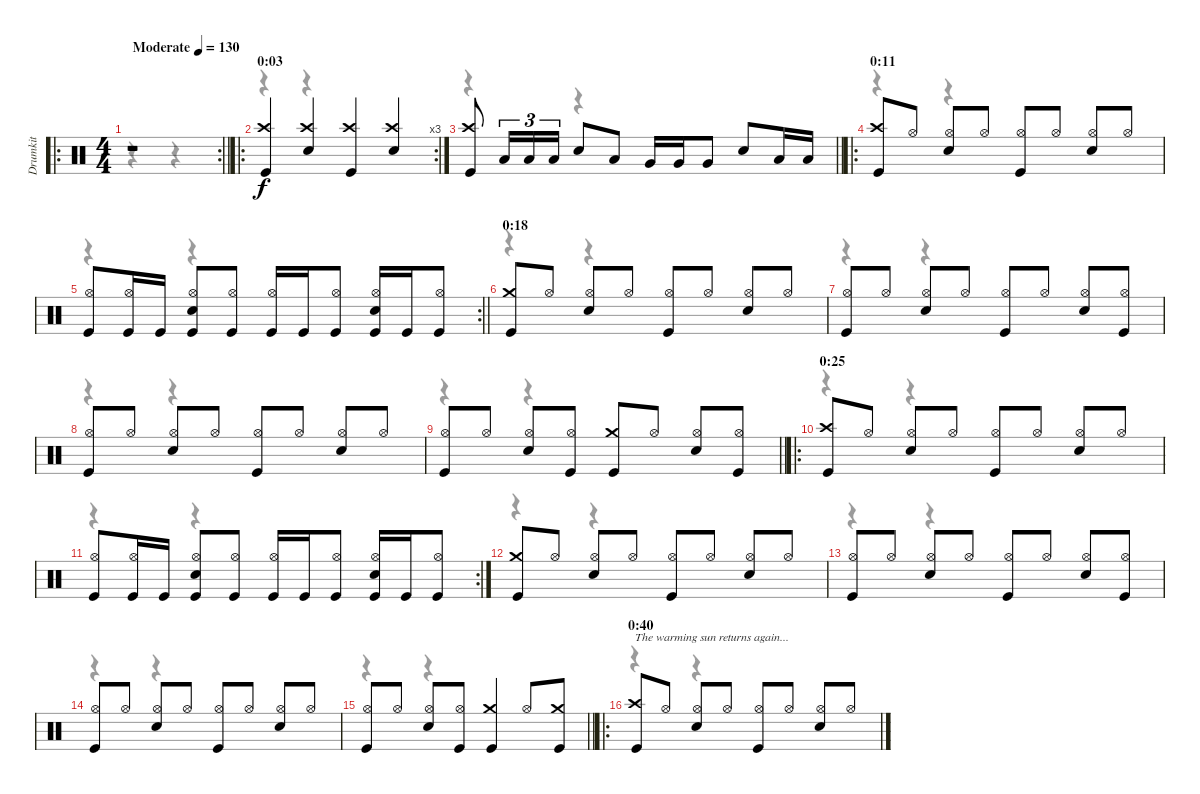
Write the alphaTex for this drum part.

\track ("Drumkit" "Drumkit") {instrument percussion}
\staff {score}
\articulation defaults
\voice
\ro
\rc 2
\ts (4 4)
\tempo (130 "Moderate")
\clef neutral
\barLineRight lightlight
\ks c
r.1{dy f} |
\ro
\rc 3
\section ("" "0:03")
("Crash high (hit)" "Kick (hit)").4 ("Crash high (hit)" "Snare (hit) 2").4 ("Crash high (hit)" "Kick (hit)").4 ("Crash high (hit)" "Snare (hit) 2").4 |
\barLineRight lightlight
("Crash high (hit)" "Kick (hit)").8 "Low Tom (hit)".16{tu (3 2)} "Low Tom (hit)".16{tu (3 2)} "Low Tom (hit)".16{tu (3 2)} "Snare (hit) 2".8 "Low Tom (hit)".8 "Very Low Tom (hit)".16 "Very Low Tom (hit)".16 "Very Low Tom (hit)".8 "Snare (hit) 2".8 "Low Tom (hit)".16 "Low Tom (hit)".16 |
\ro
\section ("" "0:11")
("Crash high (hit)" "Kick (hit)").8 "Hi-Hat (open)".8 ("Hi-Hat (open)" "Snare (hit) 2").8 "Hi-Hat (open)".8 ("Hi-Hat (open)" "Kick (hit)").8 "Hi-Hat (open)".8 ("Hi-Hat (open)" "Snare (hit) 2").8 "Hi-Hat (open)".8 |
\rc 2
\barLineRight lightlight
("Hi-Hat (open)" "Kick (hit)").8 ("Hi-Hat (open)" "Kick (hit)").16 "Kick (hit)".16 ("Hi-Hat (open)" "Snare (hit) 2" "Kick (hit)").8 ("Hi-Hat (open)" "Kick (hit)").8 ("Hi-Hat (open)" "Kick (hit)").16 "Kick (hit)".16 ("Hi-Hat (open)" "Kick (hit)").8 ("Hi-Hat (open)" "Snare (hit) 2" "Kick (hit)").16 "Kick (hit)".16 ("Hi-Hat (open)" "Kick (hit)").8 |
\section ("" "0:18")
("Crash medium (hit)" "Kick (hit)").8 "Hi-Hat (open)".8 ("Hi-Hat (open)" "Snare (hit) 2").8 "Hi-Hat (open)".8 ("Hi-Hat (open)" "Kick (hit)").8 "Hi-Hat (open)".8 ("Hi-Hat (open)" "Snare (hit) 2").8 "Hi-Hat (open)".8 |
("Hi-Hat (open)" "Kick (hit)").8 "Hi-Hat (open)".8 ("Hi-Hat (open)" "Snare (hit) 2").8 "Hi-Hat (open)".8 ("Hi-Hat (open)" "Kick (hit)").8 "Hi-Hat (open)".8 ("Hi-Hat (open)" "Snare (hit) 2").8 ("Hi-Hat (open)" "Kick (hit)").8 |
("Hi-Hat (open)" "Kick (hit)").8 "Hi-Hat (open)".8 ("Hi-Hat (open)" "Snare (hit) 2").8 "Hi-Hat (open)".8 ("Hi-Hat (open)" "Kick (hit)").8 "Hi-Hat (open)".8 ("Hi-Hat (open)" "Snare (hit) 2").8 "Hi-Hat (open)".8 |
\barLineRight lightlight
("Hi-Hat (open)" "Kick (hit)").8 "Hi-Hat (open)".8 ("Hi-Hat (open)" "Snare (hit) 2").8 ("Hi-Hat (open)" "Kick (hit)").8 ("Crash medium (hit)" "Kick (hit)").8 "Hi-Hat (open)".8 ("Hi-Hat (open)" "Snare (hit) 2").8 ("Hi-Hat (open)" "Kick (hit)").8 |
\ro
\section ("" "0:25")
("Crash high (hit)" "Kick (hit)").8 "Hi-Hat (open)".8 ("Hi-Hat (open)" "Snare (hit) 2").8 "Hi-Hat (open)".8 ("Hi-Hat (open)" "Kick (hit)").8 "Hi-Hat (open)".8 ("Hi-Hat (open)" "Snare (hit) 2").8 "Hi-Hat (open)".8 |
\rc 2
("Hi-Hat (open)" "Kick (hit)").8 ("Hi-Hat (open)" "Kick (hit)").16 "Kick (hit)".16 ("Hi-Hat (open)" "Snare (hit) 2" "Kick (hit)").8 ("Hi-Hat (open)" "Kick (hit)").8 ("Hi-Hat (open)" "Kick (hit)").16 "Kick (hit)".16 ("Hi-Hat (open)" "Kick (hit)").8 ("Hi-Hat (open)" "Snare (hit) 2" "Kick (hit)").16 "Kick (hit)".16 ("Hi-Hat (open)" "Kick (hit)").8 |
("Crash medium (hit)" "Kick (hit)").8 "Hi-Hat (open)".8 ("Hi-Hat (open)" "Snare (hit) 2").8 "Hi-Hat (open)".8 ("Hi-Hat (open)" "Kick (hit)").8 "Hi-Hat (open)".8 ("Hi-Hat (open)" "Snare (hit) 2").8 "Hi-Hat (open)".8 |
("Hi-Hat (open)" "Kick (hit)").8 "Hi-Hat (open)".8 ("Hi-Hat (open)" "Snare (hit) 2").8 "Hi-Hat (open)".8 ("Hi-Hat (open)" "Kick (hit)").8 "Hi-Hat (open)".8 ("Hi-Hat (open)" "Snare (hit) 2").8 ("Hi-Hat (open)" "Kick (hit)").8 |
("Hi-Hat (open)" "Kick (hit)").8 "Hi-Hat (open)".8 ("Hi-Hat (open)" "Snare (hit) 2").8 "Hi-Hat (open)".8 ("Hi-Hat (open)" "Kick (hit)").8 "Hi-Hat (open)".8 ("Hi-Hat (open)" "Snare (hit) 2").8 "Hi-Hat (open)".8 |
\barLineRight lightlight
("Hi-Hat (open)" "Kick (hit)").8 "Hi-Hat (open)".8 ("Hi-Hat (open)" "Snare (hit) 2").8 ("Hi-Hat (open)" "Kick (hit)").8 ("Crash medium (hit)" "Kick (hit)").4 "Hi-Hat (open)".8 ("Crash medium (hit)" "Kick (hit)").8 |
\ro
\section ("" "0:40")
("Crash high (hit)" "Kick (hit)").8{txt "The warming sun returns again..."} "Hi-Hat (open)".8 ("Hi-Hat (open)" "Snare (hit) 2").8 "Hi-Hat (open)".8 ("Hi-Hat (open)" "Kick (hit)").8 "Hi-Hat (open)".8 ("Hi-Hat (open)" "Snare (hit) 2").8 "Hi-Hat (open)".8
\voice
\clef neutral
\ottava regular
\simile none
\barLineRight lightlight
\ks c
r.4{dy f} r.4 |
r.4 r.4 |
\barLineRight lightlight
r.4 r.4 |
r.4 r.4 |
\barLineRight lightlight
r.4 r.4 |
r.4 r.4 |
r.4 r.4 |
r.4 r.4 |
\barLineRight lightlight
r.4 r.4 |
r.4 r.4 |
r.4 r.4 |
r.4 r.4 |
r.4 r.4 |
r.4 r.4 |
\barLineRight lightlight
r.4 r.4 |
r.4 r.4
